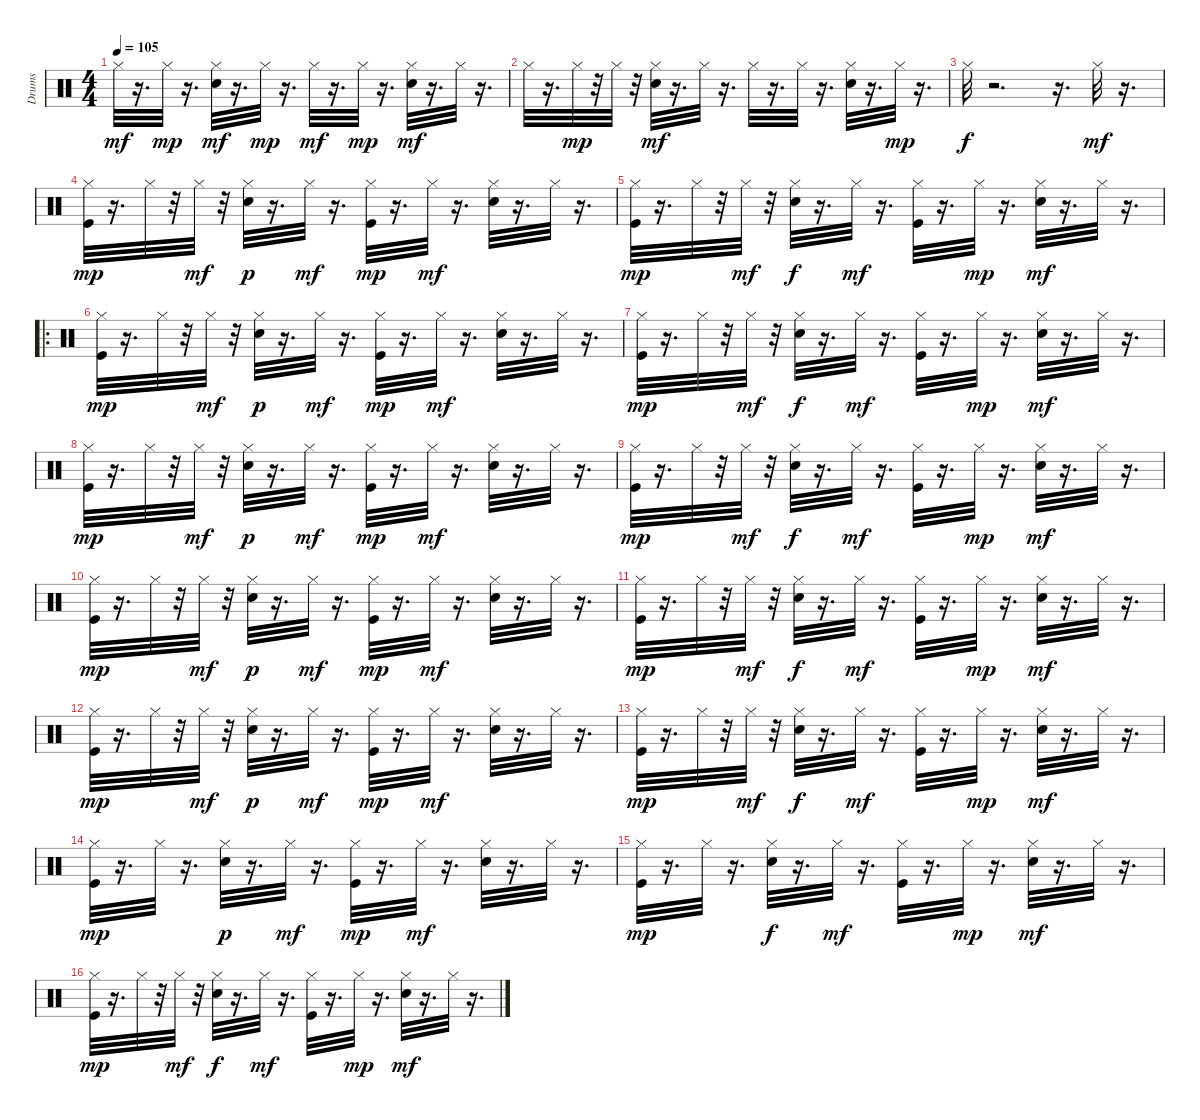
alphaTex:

\track ("Drums" "Drums") {instrument percussion}
\staff {score}
\articulation defaults
\ts (4 4)
\tempo 105
\clef neutral
\ks c "Hi-Hat (closed)".32{dy mf}
r.16{d} "Hi-Hat (closed)".32{dy mp} r.16{d} ("Snare (hit) 2" "Hi-Hat (closed)").32{dy mf} r.16{d} "Hi-Hat (closed)".32{dy mp} r.16{d} "Hi-Hat (closed)".32{dy mf} r.16{d} "Hi-Hat (closed)".32{dy mp} r.16{d} ("Snare (hit) 2" "Hi-Hat (closed)").32{dy mf} r.16{d} "Hi-Hat (closed)".32 r.16{d} |
"Hi-Hat (closed)".32 r.16{d} "Hi-Hat (closed)".32{dy mp} r.32 "Hi-Hat (closed)".32 r.32 ("Snare (hit) 2" "Hi-Hat (closed)").32{dy mf} r.16{d} "Hi-Hat (closed)".32 r.16{d} "Hi-Hat (closed)".32 r.16{d} "Hi-Hat (closed)".32 r.16{d} ("Snare (hit) 2" "Hi-Hat (closed)").32 r.16{d} "Hi-Hat (closed)".32{dy mp} r.16{d} |
"Hi-Hat (closed)".32{dy f} r.2{d} r.16{d} "Hi-Hat (closed)".32{dy mf} r.16{d} |
("Kick (hit)" "Hi-Hat (closed)").32{dy mp} r.16{d} "Hi-Hat (closed)".32 r.32 "Hi-Hat (closed)".32{dy mf} r.32 ("Snare (hit) 2" "Hi-Hat (closed)").32{dy p} r.16{d} "Hi-Hat (closed)".32{dy mf} r.16{d} ("Kick (hit)" "Hi-Hat (closed)").32{dy mp} r.16{d} "Hi-Hat (closed)".32{dy mf} r.16{d} ("Snare (hit) 2" "Hi-Hat (closed)").32 r.16{d} "Hi-Hat (closed)".32 r.16{d} |
("Kick (hit)" "Hi-Hat (closed)").32{dy mp} r.16{d} "Hi-Hat (closed)".32 r.32 "Hi-Hat (closed)".32{dy mf} r.32 ("Snare (hit) 2" "Hi-Hat (closed)").32{dy f} r.16{d} "Hi-Hat (closed)".32{dy mf} r.16{d} ("Kick (hit)" "Hi-Hat (closed)").32 r.16{d} "Hi-Hat (closed)".32{dy mp} r.16{d} ("Snare (hit) 2" "Hi-Hat (closed)").32{dy mf} r.16{d} "Hi-Hat (closed)".32 r.16{d} |
\ro
("Kick (hit)" "Hi-Hat (closed)").32{dy mp} r.16{d} "Hi-Hat (closed)".32 r.32 "Hi-Hat (closed)".32{dy mf} r.32 ("Snare (hit) 2" "Hi-Hat (closed)").32{dy p} r.16{d} "Hi-Hat (closed)".32{dy mf} r.16{d} ("Kick (hit)" "Hi-Hat (closed)").32{dy mp} r.16{d} "Hi-Hat (closed)".32{dy mf} r.16{d} ("Snare (hit) 2" "Hi-Hat (closed)").32 r.16{d} "Hi-Hat (closed)".32 r.16{d} |
("Kick (hit)" "Hi-Hat (closed)").32{dy mp} r.16{d} "Hi-Hat (closed)".32 r.32 "Hi-Hat (closed)".32{dy mf} r.32 ("Snare (hit) 2" "Hi-Hat (closed)").32{dy f} r.16{d} "Hi-Hat (closed)".32{dy mf} r.16{d} ("Kick (hit)" "Hi-Hat (closed)").32 r.16{d} "Hi-Hat (closed)".32{dy mp} r.16{d} ("Snare (hit) 2" "Hi-Hat (closed)").32{dy mf} r.16{d} "Hi-Hat (closed)".32 r.16{d} |
("Kick (hit)" "Hi-Hat (closed)").32{dy mp} r.16{d} "Hi-Hat (closed)".32 r.32 "Hi-Hat (closed)".32{dy mf} r.32 ("Snare (hit) 2" "Hi-Hat (closed)").32{dy p} r.16{d} "Hi-Hat (closed)".32{dy mf} r.16{d} ("Kick (hit)" "Hi-Hat (closed)").32{dy mp} r.16{d} "Hi-Hat (closed)".32{dy mf} r.16{d} ("Snare (hit) 2" "Hi-Hat (closed)").32 r.16{d} "Hi-Hat (closed)".32 r.16{d} |
("Kick (hit)" "Hi-Hat (closed)").32{dy mp} r.16{d} "Hi-Hat (closed)".32 r.32 "Hi-Hat (closed)".32{dy mf} r.32 ("Snare (hit) 2" "Hi-Hat (closed)").32{dy f} r.16{d} "Hi-Hat (closed)".32{dy mf} r.16{d} ("Kick (hit)" "Hi-Hat (closed)").32 r.16{d} "Hi-Hat (closed)".32{dy mp} r.16{d} ("Snare (hit) 2" "Hi-Hat (closed)").32{dy mf} r.16{d} "Hi-Hat (closed)".32 r.16{d} |
("Kick (hit)" "Hi-Hat (closed)").32{dy mp} r.16{d} "Hi-Hat (closed)".32 r.32 "Hi-Hat (closed)".32{dy mf} r.32 ("Snare (hit) 2" "Hi-Hat (closed)").32{dy p} r.16{d} "Hi-Hat (closed)".32{dy mf} r.16{d} ("Kick (hit)" "Hi-Hat (closed)").32{dy mp} r.16{d} "Hi-Hat (closed)".32{dy mf} r.16{d} ("Snare (hit) 2" "Hi-Hat (closed)").32 r.16{d} "Hi-Hat (closed)".32 r.16{d} |
("Kick (hit)" "Hi-Hat (closed)").32{dy mp} r.16{d} "Hi-Hat (closed)".32 r.32 "Hi-Hat (closed)".32{dy mf} r.32 ("Snare (hit) 2" "Hi-Hat (closed)").32{dy f} r.16{d} "Hi-Hat (closed)".32{dy mf} r.16{d} ("Kick (hit)" "Hi-Hat (closed)").32 r.16{d} "Hi-Hat (closed)".32{dy mp} r.16{d} ("Snare (hit) 2" "Hi-Hat (closed)").32{dy mf} r.16{d} "Hi-Hat (closed)".32 r.16{d} |
("Kick (hit)" "Hi-Hat (closed)").32{dy mp} r.16{d} "Hi-Hat (closed)".32 r.32 "Hi-Hat (closed)".32{dy mf} r.32 ("Snare (hit) 2" "Hi-Hat (closed)").32{dy p} r.16{d} "Hi-Hat (closed)".32{dy mf} r.16{d} ("Kick (hit)" "Hi-Hat (closed)").32{dy mp} r.16{d} "Hi-Hat (closed)".32{dy mf} r.16{d} ("Snare (hit) 2" "Hi-Hat (closed)").32 r.16{d} "Hi-Hat (closed)".32 r.16{d} |
("Kick (hit)" "Hi-Hat (closed)").32{dy mp} r.16{d} "Hi-Hat (closed)".32 r.32 "Hi-Hat (closed)".32{dy mf} r.32 ("Snare (hit) 2" "Hi-Hat (closed)").32{dy f} r.16{d} "Hi-Hat (closed)".32{dy mf} r.16{d} ("Kick (hit)" "Hi-Hat (closed)").32 r.16{d} "Hi-Hat (closed)".32{dy mp} r.16{d} ("Snare (hit) 2" "Hi-Hat (closed)").32{dy mf} r.16{d} "Hi-Hat (closed)".32 r.16{d} |
("Kick (hit)" "Hi-Hat (closed)").32{dy mp} r.16{d} "Hi-Hat (closed)".32 r.16{d} ("Snare (hit) 2" "Hi-Hat (closed)").32{dy p} r.16{d} "Hi-Hat (closed)".32{dy mf} r.16{d} ("Kick (hit)" "Hi-Hat (closed)").32{dy mp} r.16{d} "Hi-Hat (closed)".32{dy mf} r.16{d} ("Snare (hit) 2" "Hi-Hat (closed)").32 r.16{d} "Hi-Hat (closed)".32 r.16{d} |
("Kick (hit)" "Hi-Hat (closed)").32{dy mp} r.16{d} "Hi-Hat (closed)".32 r.16{d} ("Snare (hit) 2" "Hi-Hat (closed)").32{dy f} r.16{d} "Hi-Hat (closed)".32{dy mf} r.16{d} ("Kick (hit)" "Hi-Hat (closed)").32 r.16{d} "Hi-Hat (closed)".32{dy mp} r.16{d} ("Snare (hit) 2" "Hi-Hat (closed)").32{dy mf} r.16{d} "Hi-Hat (closed)".32 r.16{d} |
("Kick (hit)" "Hi-Hat (closed)").32{dy mp} r.16{d} "Hi-Hat (closed)".32 r.32 "Hi-Hat (closed)".32{dy mf} r.32 ("Snare (hit) 2" "Hi-Hat (closed)").32{dy f} r.16{d} "Hi-Hat (closed)".32{dy mf} r.16{d} ("Kick (hit)" "Hi-Hat (closed)").32 r.16{d} "Hi-Hat (closed)".32{dy mp} r.16{d} ("Snare (hit) 2" "Hi-Hat (closed)").32{dy mf} r.16{d} "Hi-Hat (closed)".32 r.16{d}
